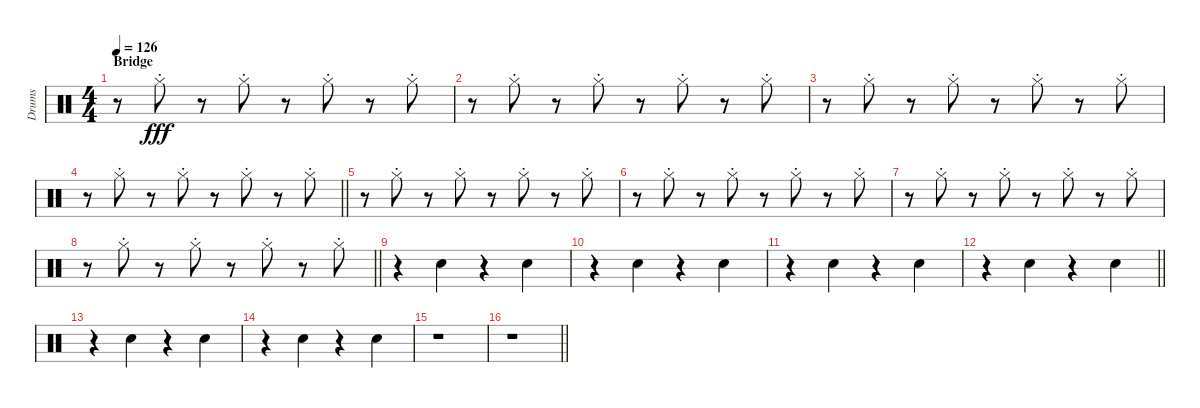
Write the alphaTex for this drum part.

\track ("Drums" "Drums") {instrument percussion}
\staff {score}
\articulation defaults
\ts (4 4)
\section ("" "Bridge")
\tempo 126
\clef neutral
\ks c
r.8{dy fff} "Hi-Hat (closed)"{st}.8 r.8 "Hi-Hat (closed)"{st}.8 r.8 "Hi-Hat (closed)"{st}.8 r.8 "Hi-Hat (closed)"{st}.8 |
r.8 "Hi-Hat (closed)"{st}.8 r.8 "Hi-Hat (closed)"{st}.8 r.8 "Hi-Hat (closed)"{st}.8 r.8 "Hi-Hat (closed)"{st}.8 |
r.8 "Hi-Hat (closed)"{st}.8 r.8 "Hi-Hat (closed)"{st}.8 r.8 "Hi-Hat (closed)"{st}.8 r.8 "Hi-Hat (closed)"{st}.8 |
\barLineRight lightlight
r.8 "Hi-Hat (closed)"{st}.8 r.8 "Hi-Hat (closed)"{st}.8 r.8 "Hi-Hat (closed)"{st}.8 r.8 "Hi-Hat (closed)"{st}.8 |
r.8 "Hi-Hat (closed)"{st}.8 r.8 "Hi-Hat (closed)"{st}.8 r.8 "Hi-Hat (closed)"{st}.8 r.8 "Hi-Hat (closed)"{st}.8 |
r.8 "Hi-Hat (closed)"{st}.8 r.8 "Hi-Hat (closed)"{st}.8 r.8 "Hi-Hat (closed)"{st}.8 r.8 "Hi-Hat (closed)"{st}.8 |
r.8 "Hi-Hat (closed)"{st}.8 r.8 "Hi-Hat (closed)"{st}.8 r.8 "Hi-Hat (closed)"{st}.8 r.8 "Hi-Hat (closed)"{st}.8 |
\barLineRight lightlight
r.8 "Hi-Hat (closed)"{st}.8 r.8 "Hi-Hat (closed)"{st}.8 r.8 "Hi-Hat (closed)"{st}.8 r.8 "Hi-Hat (closed)"{st}.8 |
r.4 "Hand Clap (hit)".4 r.4 "Hand Clap (hit)".4 |
r.4 "Hand Clap (hit)".4 r.4 "Hand Clap (hit)".4 |
r.4 "Hand Clap (hit)".4 r.4 "Hand Clap (hit)".4 |
\barLineRight lightlight
r.4 "Hand Clap (hit)".4 r.4 "Hand Clap (hit)".4 |
r.4 "Hand Clap (hit)".4 r.4 "Hand Clap (hit)".4 |
r.4 "Hand Clap (hit)".4 r.4 "Hand Clap (hit)".4 |
r.1 |
\barLineRight lightlight
r.1
